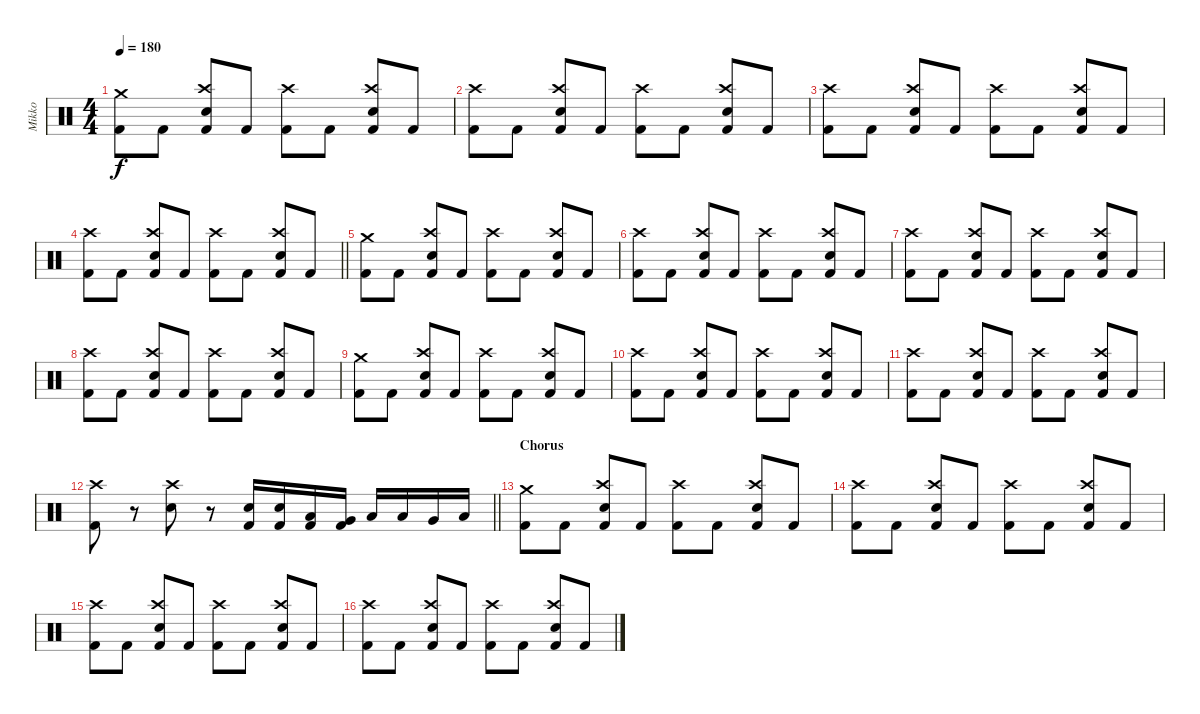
\track ("Mikko" "Mikko") {instrument percussion}
\staff {score}
\articulation defaults
\ts (4 4)
\tempo 180
\clef neutral
\ks c
("Crash medium (hit)" "Kick (hit) 2").8{dy f} "Kick (hit) 2".8 ("Crash high (hit)" "Electric Snare (hit)" "Kick (hit) 2").8 "Kick (hit) 2".8 ("Crash high (hit)" "Kick (hit) 2").8 "Kick (hit) 2".8 ("Crash high (hit)" "Electric Snare (hit)" "Kick (hit) 2").8 "Kick (hit) 2".8 |
("Crash high (hit)" "Kick (hit) 2").8 "Kick (hit) 2".8 ("Crash high (hit)" "Electric Snare (hit)" "Kick (hit) 2").8 "Kick (hit) 2".8 ("Crash high (hit)" "Kick (hit) 2").8 "Kick (hit) 2".8 ("Crash high (hit)" "Electric Snare (hit)" "Kick (hit) 2").8 "Kick (hit) 2".8 |
("Crash high (hit)" "Kick (hit) 2").8 "Kick (hit) 2".8 ("Crash high (hit)" "Electric Snare (hit)" "Kick (hit) 2").8 "Kick (hit) 2".8 ("Crash high (hit)" "Kick (hit) 2").8 "Kick (hit) 2".8 ("Crash high (hit)" "Electric Snare (hit)" "Kick (hit) 2").8 "Kick (hit) 2".8 |
\barLineRight lightlight
("Crash high (hit)" "Kick (hit) 2").8 "Kick (hit) 2".8 ("Crash high (hit)" "Electric Snare (hit)" "Kick (hit) 2").8 "Kick (hit) 2".8 ("Crash high (hit)" "Kick (hit) 2").8 "Kick (hit) 2".8 ("Crash high (hit)" "Electric Snare (hit)" "Kick (hit) 2").8 "Kick (hit) 2".8 |
("Crash medium (hit)" "Kick (hit) 2").8 "Kick (hit) 2".8 ("Crash high (hit)" "Electric Snare (hit)" "Kick (hit) 2").8 "Kick (hit) 2".8 ("Crash high (hit)" "Kick (hit) 2").8 "Kick (hit) 2".8 ("Crash high (hit)" "Electric Snare (hit)" "Kick (hit) 2").8 "Kick (hit) 2".8 |
("Crash high (hit)" "Kick (hit) 2").8 "Kick (hit) 2".8 ("Crash high (hit)" "Electric Snare (hit)" "Kick (hit) 2").8 "Kick (hit) 2".8 ("Crash high (hit)" "Kick (hit) 2").8 "Kick (hit) 2".8 ("Crash high (hit)" "Electric Snare (hit)" "Kick (hit) 2").8 "Kick (hit) 2".8 |
("Crash high (hit)" "Kick (hit) 2").8 "Kick (hit) 2".8 ("Crash high (hit)" "Electric Snare (hit)" "Kick (hit) 2").8 "Kick (hit) 2".8 ("Crash high (hit)" "Kick (hit) 2").8 "Kick (hit) 2".8 ("Crash high (hit)" "Electric Snare (hit)" "Kick (hit) 2").8 "Kick (hit) 2".8 |
("Crash high (hit)" "Kick (hit) 2").8 "Kick (hit) 2".8 ("Crash high (hit)" "Electric Snare (hit)" "Kick (hit) 2").8 "Kick (hit) 2".8 ("Crash high (hit)" "Kick (hit) 2").8 "Kick (hit) 2".8 ("Crash high (hit)" "Electric Snare (hit)" "Kick (hit) 2").8 "Kick (hit) 2".8 |
("Crash medium (hit)" "Kick (hit) 2").8 "Kick (hit) 2".8 ("Crash high (hit)" "Electric Snare (hit)" "Kick (hit) 2").8 "Kick (hit) 2".8 ("Crash high (hit)" "Kick (hit) 2").8 "Kick (hit) 2".8 ("Crash high (hit)" "Electric Snare (hit)" "Kick (hit) 2").8 "Kick (hit) 2".8 |
("Crash high (hit)" "Kick (hit) 2").8 "Kick (hit) 2".8 ("Crash high (hit)" "Electric Snare (hit)" "Kick (hit) 2").8 "Kick (hit) 2".8 ("Crash high (hit)" "Kick (hit) 2").8 "Kick (hit) 2".8 ("Crash high (hit)" "Electric Snare (hit)" "Kick (hit) 2").8 "Kick (hit) 2".8 |
("Crash high (hit)" "Kick (hit) 2").8 "Kick (hit) 2".8 ("Crash high (hit)" "Electric Snare (hit)" "Kick (hit) 2").8 "Kick (hit) 2".8 ("Crash high (hit)" "Kick (hit) 2").8 "Kick (hit) 2".8 ("Crash high (hit)" "Electric Snare (hit)" "Kick (hit) 2").8 "Kick (hit) 2".8 |
\barLineRight lightlight
("Crash high (hit)" "Kick (hit) 2").8 r.8 ("Crash high (hit)" "Electric Snare (hit)").8 r.8 ("Electric Snare (hit)" "Kick (hit) 2").16 ("Electric Snare (hit)" "Kick (hit) 2").16 ("Low Tom (hit)" "Kick (hit) 2").16 ("Very Low Tom (hit)" "Kick (hit) 2").16 "Low Floor Tom (hit)".16 "Low Tom (hit)".16 "Very Low Tom (hit)".16 "Low Floor Tom (hit)".16 |
\section ("" "Chorus")
("Crash medium (hit)" "Kick (hit) 2").8 "Kick (hit) 2".8 ("Crash high (hit)" "Electric Snare (hit)" "Kick (hit) 2").8 "Kick (hit) 2".8 ("Crash high (hit)" "Kick (hit) 2").8 "Kick (hit) 2".8 ("Crash high (hit)" "Electric Snare (hit)" "Kick (hit) 2").8 "Kick (hit) 2".8 |
("Crash high (hit)" "Kick (hit) 2").8 "Kick (hit) 2".8 ("Crash high (hit)" "Electric Snare (hit)" "Kick (hit) 2").8 "Kick (hit) 2".8 ("Crash high (hit)" "Kick (hit) 2").8 "Kick (hit) 2".8 ("Crash high (hit)" "Electric Snare (hit)" "Kick (hit) 2").8 "Kick (hit) 2".8 |
("Crash high (hit)" "Kick (hit) 2").8 "Kick (hit) 2".8 ("Crash high (hit)" "Electric Snare (hit)" "Kick (hit) 2").8 "Kick (hit) 2".8 ("Crash high (hit)" "Kick (hit) 2").8 "Kick (hit) 2".8 ("Crash high (hit)" "Electric Snare (hit)" "Kick (hit) 2").8 "Kick (hit) 2".8 |
("Crash high (hit)" "Kick (hit) 2").8 "Kick (hit) 2".8 ("Crash high (hit)" "Electric Snare (hit)" "Kick (hit) 2").8 "Kick (hit) 2".8 ("Crash high (hit)" "Kick (hit) 2").8 "Kick (hit) 2".8 ("Crash high (hit)" "Electric Snare (hit)" "Kick (hit) 2").8 "Kick (hit) 2".8
